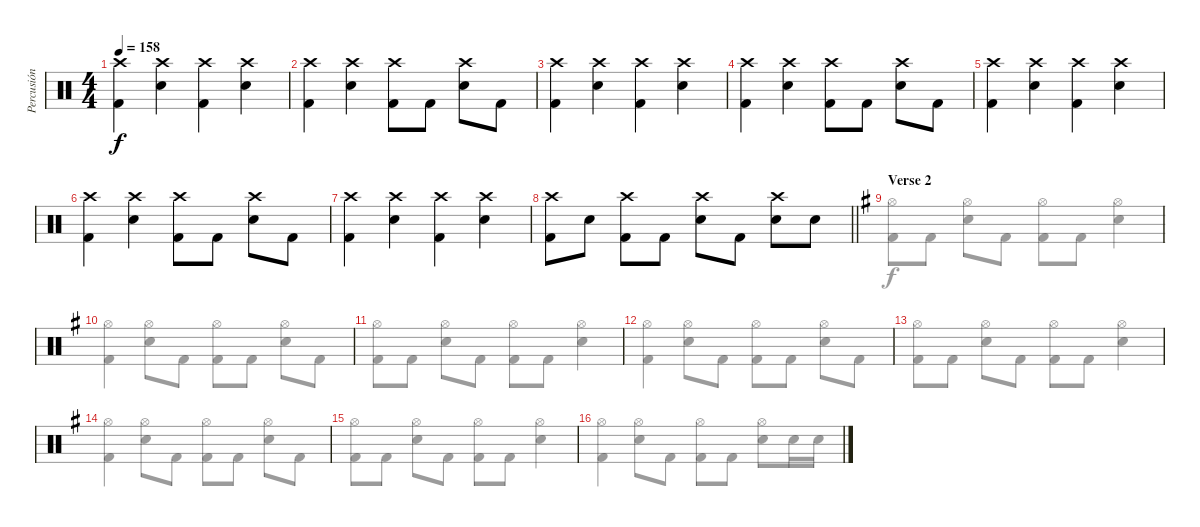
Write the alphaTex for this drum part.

\track ("Percusión" "Percusión") {instrument percussion}
\staff {score}
\articulation defaults
\voice
\ts (4 4)
\tempo 158
\clef neutral
\ks c
("Crash high (hit)" "Kick (hit) 2").4{dy f} ("Crash high (hit)" "Snare (hit) 2").4 ("Crash high (hit)" "Kick (hit) 2").4 ("Crash high (hit)" "Snare (hit) 2").4 |
("Crash high (hit)" "Kick (hit) 2").4 ("Crash high (hit)" "Snare (hit) 2").4 ("Crash high (hit)" "Kick (hit) 2").8 "Kick (hit) 2".8 ("Crash high (hit)" "Snare (hit) 2").8 "Kick (hit) 2".8 |
("Crash high (hit)" "Kick (hit) 2").4 ("Crash high (hit)" "Snare (hit) 2").4 ("Crash high (hit)" "Kick (hit) 2").4 ("Crash high (hit)" "Snare (hit) 2").4 |
("Crash high (hit)" "Kick (hit) 2").4 ("Crash high (hit)" "Snare (hit) 2").4 ("Crash high (hit)" "Kick (hit) 2").8 "Kick (hit) 2".8 ("Crash high (hit)" "Snare (hit) 2").8 "Kick (hit) 2".8 |
("Crash high (hit)" "Kick (hit) 2").4 ("Crash high (hit)" "Snare (hit) 2").4 ("Crash high (hit)" "Kick (hit) 2").4 ("Crash high (hit)" "Snare (hit) 2").4 |
("Crash high (hit)" "Kick (hit) 2").4 ("Crash high (hit)" "Snare (hit) 2").4 ("Crash high (hit)" "Kick (hit) 2").8 "Kick (hit) 2".8 ("Crash high (hit)" "Snare (hit) 2").8 "Kick (hit) 2".8 |
("Crash high (hit)" "Kick (hit) 2").4 ("Crash high (hit)" "Snare (hit) 2").4 ("Crash high (hit)" "Kick (hit) 2").4 ("Crash high (hit)" "Snare (hit) 2").4 |
\barLineRight lightlight
("Crash high (hit)" "Kick (hit) 2").8 "Snare (hit) 2".8 ("Crash high (hit)" "Kick (hit) 2").8 "Kick (hit) 2".8 ("Crash high (hit)" "Snare (hit) 2").8 "Kick (hit) 2".8 ("Crash high (hit)" "Snare (hit) 2").8 "Snare (hit) 2".8 |
\section ("" "Verse 2")
\ks g
|
|
|
|
|
|
|
\voice
\clef neutral
\ottava regular
\simile none
\ks c
|
|
|
|
|
|
|
\barLineRight lightlight
|
\ks g
("Hi-Hat (open)" "Kick (hit) 2").8 "Kick (hit) 2".8 ("Hi-Hat (open)" "Snare (hit) 2").8 "Kick (hit) 2".8 ("Hi-Hat (open)" "Kick (hit) 2").8 "Kick (hit) 2".8 ("Hi-Hat (open)" "Snare (hit) 2").4 |
("Hi-Hat (open)" "Kick (hit) 2").4 ("Hi-Hat (open)" "Snare (hit) 2").8 "Kick (hit) 2".8 ("Hi-Hat (open)" "Kick (hit) 2").8 "Kick (hit) 2".8 ("Hi-Hat (open)" "Snare (hit) 2").8 "Kick (hit) 2".8 |
("Hi-Hat (open)" "Kick (hit) 2").8 "Kick (hit) 2".8 ("Hi-Hat (open)" "Snare (hit) 2").8 "Kick (hit) 2".8 ("Hi-Hat (open)" "Kick (hit) 2").8 "Kick (hit) 2".8 ("Hi-Hat (open)" "Snare (hit) 2").4 |
("Hi-Hat (open)" "Kick (hit) 2").4 ("Hi-Hat (open)" "Snare (hit) 2").8 "Kick (hit) 2".8 ("Hi-Hat (open)" "Kick (hit) 2").8 "Kick (hit) 2".8 ("Hi-Hat (open)" "Snare (hit) 2").8 "Kick (hit) 2".8 |
("Hi-Hat (open)" "Kick (hit) 2").8 "Kick (hit) 2".8 ("Hi-Hat (open)" "Snare (hit) 2").8 "Kick (hit) 2".8 ("Hi-Hat (open)" "Kick (hit) 2").8 "Kick (hit) 2".8 ("Hi-Hat (open)" "Snare (hit) 2").4 |
("Hi-Hat (open)" "Kick (hit) 2").4 ("Hi-Hat (open)" "Snare (hit) 2").8 "Kick (hit) 2".8 ("Hi-Hat (open)" "Kick (hit) 2").8 "Kick (hit) 2".8 ("Hi-Hat (open)" "Snare (hit) 2").8 "Kick (hit) 2".8 |
("Hi-Hat (open)" "Kick (hit) 2").8 "Kick (hit) 2".8 ("Hi-Hat (open)" "Snare (hit) 2").8 "Kick (hit) 2".8 ("Hi-Hat (open)" "Kick (hit) 2").8 "Kick (hit) 2".8 ("Hi-Hat (open)" "Snare (hit) 2").4 |
("Hi-Hat (open)" "Kick (hit) 2").4 ("Hi-Hat (open)" "Snare (hit) 2").8 "Kick (hit) 2".8 ("Hi-Hat (open)" "Kick (hit) 2").8 "Kick (hit) 2".8 ("Hi-Hat (open)" "Snare (hit) 2").8 "Snare (hit) 2".16 "Snare (hit) 2".16
